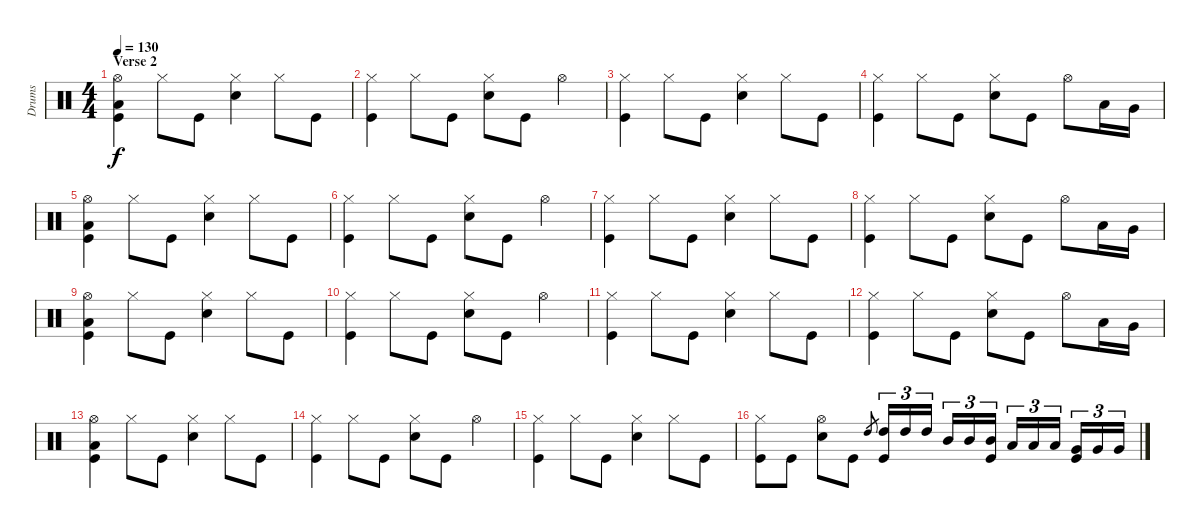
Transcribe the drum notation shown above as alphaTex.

\track ("Drums" "Drums") {instrument percussion}
\staff {score}
\articulation defaults
\ts (4 4)
\section ("" "Verse 2")
\tempo 130
\clef neutral
\ks c
("Hi-Hat (open)" "Low Floor Tom (hit)" "Kick (hit)").4{dy f} "Hi-Hat (closed)".8 "Kick (hit)".8 ("Hi-Hat (closed)" "Snare (hit) 2").4 "Hi-Hat (closed)".8 "Kick (hit)".8 |
("Hi-Hat (closed)" "Kick (hit)").4 "Hi-Hat (closed)".8 "Kick (hit)".8 ("Hi-Hat (closed)" "Snare (hit) 2").8 "Kick (hit)".8 "Hi-Hat (open)".4 |
("Hi-Hat (closed)" "Kick (hit)").4 "Hi-Hat (closed)".8 "Kick (hit)".8 ("Hi-Hat (closed)" "Snare (hit) 2").4 "Hi-Hat (closed)".8 "Kick (hit)".8 |
("Hi-Hat (closed)" "Kick (hit)").4 "Hi-Hat (closed)".8 "Kick (hit)".8 ("Hi-Hat (closed)" "Snare (hit) 2").8 "Kick (hit)".8 "Hi-Hat (open)".8 "Low Tom (hit)".16 "Very Low Tom (hit)".16 |
("Hi-Hat (open)" "Low Floor Tom (hit)" "Kick (hit)").4 "Hi-Hat (closed)".8 "Kick (hit)".8 ("Hi-Hat (closed)" "Snare (hit) 2").4 "Hi-Hat (closed)".8 "Kick (hit)".8 |
("Hi-Hat (closed)" "Kick (hit)").4 "Hi-Hat (closed)".8 "Kick (hit)".8 ("Hi-Hat (closed)" "Snare (hit) 2").8 "Kick (hit)".8 "Hi-Hat (open)".4 |
("Hi-Hat (closed)" "Kick (hit)").4 "Hi-Hat (closed)".8 "Kick (hit)".8 ("Hi-Hat (closed)" "Snare (hit) 2").4 "Hi-Hat (closed)".8 "Kick (hit)".8 |
("Hi-Hat (closed)" "Kick (hit)").4 "Hi-Hat (closed)".8 "Kick (hit)".8 ("Hi-Hat (closed)" "Snare (hit) 2").8 "Kick (hit)".8 "Hi-Hat (open)".8 "Low Tom (hit)".16 "Very Low Tom (hit)".16 |
("Hi-Hat (open)" "Low Floor Tom (hit)" "Kick (hit)").4 "Hi-Hat (closed)".8 "Kick (hit)".8 ("Hi-Hat (closed)" "Snare (hit) 2").4 "Hi-Hat (closed)".8 "Kick (hit)".8 |
("Hi-Hat (closed)" "Kick (hit)").4 "Hi-Hat (closed)".8 "Kick (hit)".8 ("Hi-Hat (closed)" "Snare (hit) 2").8 "Kick (hit)".8 "Hi-Hat (open)".4 |
("Hi-Hat (closed)" "Kick (hit)").4 "Hi-Hat (closed)".8 "Kick (hit)".8 ("Hi-Hat (closed)" "Snare (hit) 2").4 "Hi-Hat (closed)".8 "Kick (hit)".8 |
("Hi-Hat (closed)" "Kick (hit)").4 "Hi-Hat (closed)".8 "Kick (hit)".8 ("Hi-Hat (closed)" "Snare (hit) 2").8 "Kick (hit)".8 "Hi-Hat (open)".8 "Low Tom (hit)".16 "Very Low Tom (hit)".16 |
("Hi-Hat (open)" "Low Floor Tom (hit)" "Kick (hit)").4 "Hi-Hat (closed)".8 "Kick (hit)".8 ("Hi-Hat (closed)" "Snare (hit) 2").4 "Hi-Hat (closed)".8 "Kick (hit)".8 |
("Hi-Hat (closed)" "Kick (hit)").4 "Hi-Hat (closed)".8 "Kick (hit)".8 ("Hi-Hat (closed)" "Snare (hit) 2").8 "Kick (hit)".8 "Hi-Hat (open)".4 |
("Hi-Hat (closed)" "Kick (hit)").4 "Hi-Hat (closed)".8 "Kick (hit)".8 ("Hi-Hat (closed)" "Snare (hit) 2").4 "Hi-Hat (closed)".8 "Kick (hit)".8 |
("Hi-Hat (closed)" "Kick (hit)").8 "Kick (hit)".8 ("Hi-Hat (open)" "Snare (hit) 2").8 "Kick (hit)".8 "High Tom (hit)".8{gr} ("High Tom (hit)" "Kick (hit)").16{tu (3 2)} "High Tom (hit)".16{tu (3 2)} "High Tom (hit)".16{tu (3 2)} "Mid Tom (hit)".16{tu (3 2)} "Mid Tom (hit)".16{tu (3 2)} ("Mid Tom (hit)" "Kick (hit)").16{tu (3 2)} "Low Tom (hit)".16{tu (3 2)} "Low Tom (hit)".16{tu (3 2)} "Low Tom (hit)".16{tu (3 2)} ("Very Low Tom (hit)" "Kick (hit)").16{tu (3 2)} "Very Low Tom (hit)".16{tu (3 2)} "Very Low Tom (hit)".16{tu (3 2)}
